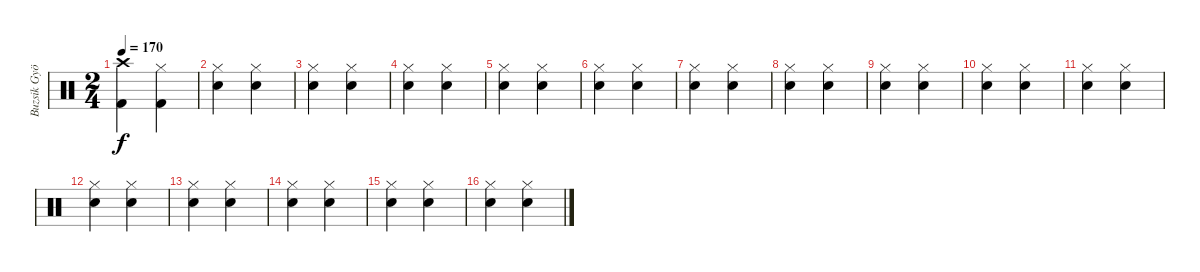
\track ("Buzsik György (dob)" "Buzsik Gyö") {instrument percussion}
\staff {score}
\articulation defaults
\ts (2 4)
\tempo 170
\clef neutral
\ks c
("Crash high (hit)" "Kick (hit) 2").4{dy f} ("Hi-Hat (closed)" "Kick (hit) 2").4 |
("Hi-Hat (closed)" "Snare (hit) 2").4 ("Hi-Hat (closed)" "Snare (hit) 2").4 |
("Hi-Hat (closed)" "Snare (hit) 2").4 ("Hi-Hat (closed)" "Snare (hit) 2").4 |
("Hi-Hat (closed)" "Snare (hit) 2").4 ("Hi-Hat (closed)" "Snare (hit) 2").4 |
("Hi-Hat (closed)" "Snare (hit) 2").4 ("Hi-Hat (closed)" "Snare (hit) 2").4 |
("Hi-Hat (closed)" "Snare (hit) 2").4 ("Hi-Hat (closed)" "Snare (hit) 2").4 |
("Hi-Hat (closed)" "Snare (hit) 2").4 ("Hi-Hat (closed)" "Snare (hit) 2").4 |
("Hi-Hat (closed)" "Snare (hit) 2").4 ("Hi-Hat (closed)" "Snare (hit) 2").4 |
("Hi-Hat (closed)" "Snare (hit) 2").4 ("Hi-Hat (closed)" "Snare (hit) 2").4 |
("Hi-Hat (closed)" "Snare (hit) 2").4 ("Hi-Hat (closed)" "Snare (hit) 2").4 |
("Hi-Hat (closed)" "Snare (hit) 2").4 ("Hi-Hat (closed)" "Snare (hit) 2").4 |
("Hi-Hat (closed)" "Snare (hit) 2").4 ("Hi-Hat (closed)" "Snare (hit) 2").4 |
("Hi-Hat (closed)" "Snare (hit) 2").4 ("Hi-Hat (closed)" "Snare (hit) 2").4 |
("Hi-Hat (closed)" "Snare (hit) 2").4 ("Hi-Hat (closed)" "Snare (hit) 2").4 |
("Hi-Hat (closed)" "Snare (hit) 2").4 ("Hi-Hat (closed)" "Snare (hit) 2").4 |
("Hi-Hat (closed)" "Snare (hit) 2").4 ("Hi-Hat (closed)" "Snare (hit) 2").4
